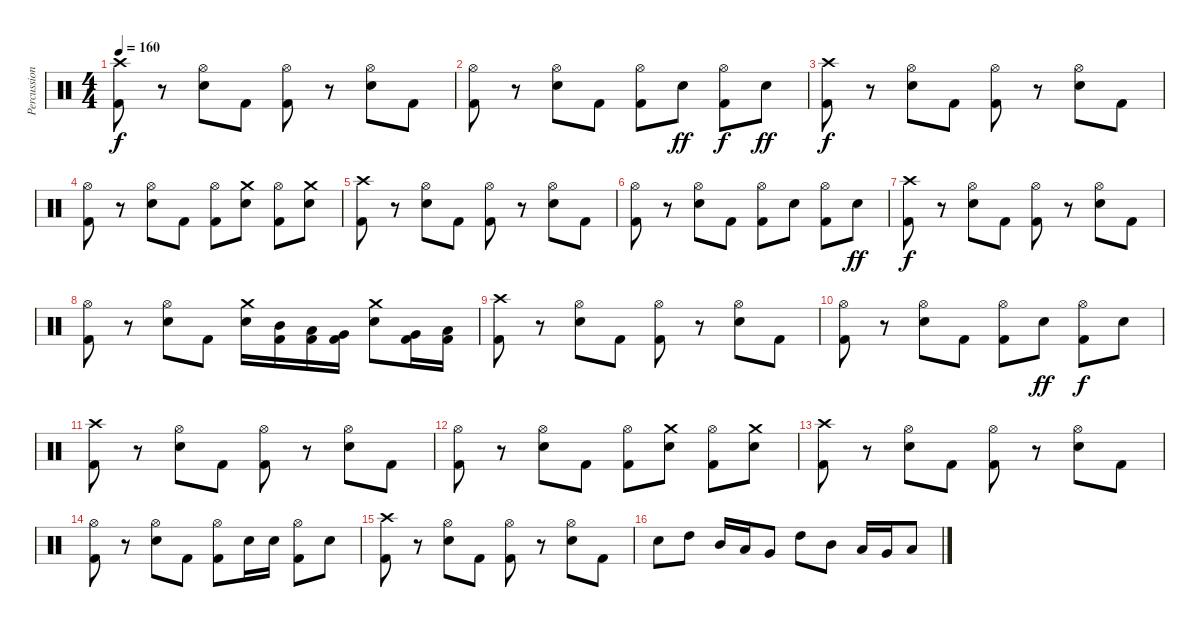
\track ("Percussion" "Percussion") {instrument percussion}
\staff {score}
\articulation defaults
\ts (4 4)
\tempo 160
\clef neutral
\ks c
("Crash high (hit)" "Kick (hit) 2").8{dy f} r.8 ("Hi-Hat (open)" "Snare (hit) 2").8 "Kick (hit) 2".8 ("Hi-Hat (open)" "Kick (hit) 2").8 r.8 ("Hi-Hat (open)" "Snare (hit) 2").8 "Kick (hit) 2".8 |
("Hi-Hat (open)" "Kick (hit) 2").8 r.8 ("Hi-Hat (open)" "Snare (hit) 2").8 "Kick (hit) 2".8 ("Hi-Hat (open)" "Kick (hit) 2").8 "Snare (hit) 2".8{dy ff} ("Hi-Hat (open)" "Kick (hit) 2").8{dy f} "Snare (hit) 2".8{dy ff} |
("Crash high (hit)" "Kick (hit) 2").8{dy f} r.8 ("Hi-Hat (open)" "Snare (hit) 2").8 "Kick (hit) 2".8 ("Hi-Hat (open)" "Kick (hit) 2").8 r.8 ("Hi-Hat (open)" "Snare (hit) 2").8 "Kick (hit) 2".8 |
("Hi-Hat (open)" "Kick (hit) 2").8 r.8 ("Hi-Hat (open)" "Snare (hit) 2").8 "Kick (hit) 2".8 ("Hi-Hat (open)" "Kick (hit) 2").8 ("Crash medium (hit)" "Snare (hit) 2").8 ("Hi-Hat (open)" "Kick (hit) 2").8 ("Crash medium (hit)" "Snare (hit) 2").8 |
("Crash high (hit)" "Kick (hit) 2").8 r.8 ("Hi-Hat (open)" "Snare (hit) 2").8 "Kick (hit) 2".8 ("Hi-Hat (open)" "Kick (hit) 2").8 r.8 ("Hi-Hat (open)" "Snare (hit) 2").8 "Kick (hit) 2".8 |
("Hi-Hat (open)" "Kick (hit) 2").8 r.8 ("Hi-Hat (open)" "Snare (hit) 2").8 "Kick (hit) 2".8 ("Hi-Hat (open)" "Kick (hit) 2").8 "Snare (hit) 2".8 ("Hi-Hat (open)" "Kick (hit) 2").8 "Snare (hit) 2".8{dy ff} |
("Crash high (hit)" "Kick (hit) 2").8{dy f} r.8 ("Hi-Hat (open)" "Snare (hit) 2").8 "Kick (hit) 2".8 ("Hi-Hat (open)" "Kick (hit) 2").8 r.8 ("Hi-Hat (open)" "Snare (hit) 2").8 "Kick (hit) 2".8 |
("Hi-Hat (open)" "Kick (hit) 2").8 r.8 ("Hi-Hat (open)" "Snare (hit) 2").8 "Kick (hit) 2".8 ("Crash medium (hit)" "Snare (hit) 2").16 ("Mid Tom (hit)" "Kick (hit) 2").16 ("Low Tom (hit)" "Kick (hit) 2").16 ("Very Low Tom (hit)" "Kick (hit) 2").16 ("Crash medium (hit)" "Snare (hit) 2").8 ("Very Low Tom (hit)" "Kick (hit) 2").16 ("Low Floor Tom (hit)" "Kick (hit) 2").16 |
("Crash high (hit)" "Kick (hit) 2").8 r.8 ("Hi-Hat (open)" "Snare (hit) 2").8 "Kick (hit) 2".8 ("Hi-Hat (open)" "Kick (hit) 2").8 r.8 ("Hi-Hat (open)" "Snare (hit) 2").8 "Kick (hit) 2".8 |
("Hi-Hat (open)" "Kick (hit) 2").8 r.8 ("Hi-Hat (open)" "Snare (hit) 2").8 "Kick (hit) 2".8 ("Hi-Hat (open)" "Kick (hit) 2").8 "Snare (hit) 2".8{dy ff} ("Hi-Hat (open)" "Kick (hit) 2").8{dy f} "Snare (hit) 2".8 |
("Crash high (hit)" "Kick (hit) 2").8 r.8 ("Hi-Hat (open)" "Snare (hit) 2").8 "Kick (hit) 2".8 ("Hi-Hat (open)" "Kick (hit) 2").8 r.8 ("Hi-Hat (open)" "Snare (hit) 2").8 "Kick (hit) 2".8 |
("Hi-Hat (open)" "Kick (hit) 2").8 r.8 ("Hi-Hat (open)" "Snare (hit) 2").8 "Kick (hit) 2".8 ("Hi-Hat (open)" "Kick (hit) 2").8 ("Crash medium (hit)" "Snare (hit) 2").8 ("Hi-Hat (open)" "Kick (hit) 2").8 ("Crash medium (hit)" "Snare (hit) 2").8 |
("Crash high (hit)" "Kick (hit) 2").8 r.8 ("Hi-Hat (open)" "Snare (hit) 2").8 "Kick (hit) 2".8 ("Hi-Hat (open)" "Kick (hit) 2").8 r.8 ("Hi-Hat (open)" "Snare (hit) 2").8 "Kick (hit) 2".8 |
("Hi-Hat (open)" "Kick (hit) 2").8 r.8 ("Hi-Hat (open)" "Snare (hit) 2").8 "Kick (hit) 2".8 ("Hi-Hat (open)" "Kick (hit) 2").8 "Snare (hit) 2".16 "Snare (hit) 2".16 ("Hi-Hat (open)" "Kick (hit) 2").8 "Snare (hit) 2".8 |
("Crash high (hit)" "Kick (hit) 2").8 r.8 ("Hi-Hat (open)" "Snare (hit) 2").8 "Kick (hit) 2".8 ("Hi-Hat (open)" "Kick (hit) 2").8 r.8 ("Hi-Hat (open)" "Snare (hit) 2").8 "Kick (hit) 2".8 |
"Snare (hit) 2".8 "High Tom (hit)".8 "Mid Tom (hit)".16 "Low Tom (hit)".16 "Very Low Tom (hit)".8 "High Tom (hit)".8 "Mid Tom (hit)".8 "Low Tom (hit)".16 "Very Low Tom (hit)".16 "Low Floor Tom (hit)".8
